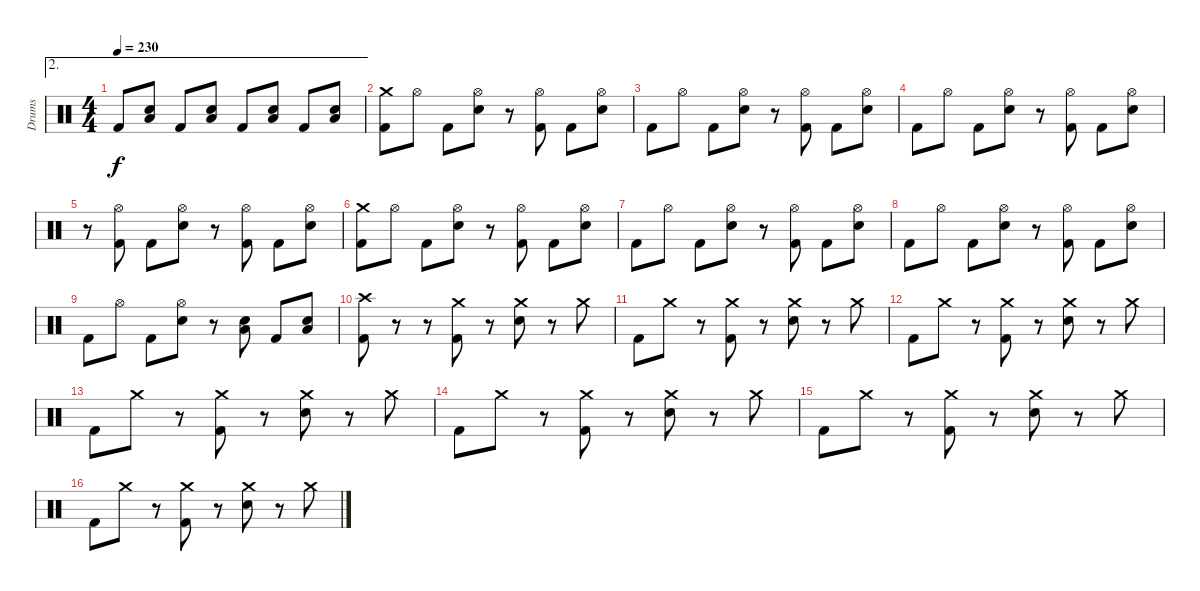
\track ("Drums" "Drums") {instrument percussion}
\staff {score}
\articulation defaults
\ae 2
\ts (4 4)
\tempo 230
\clef neutral
\ks c "Kick (hit) 2".8{dy f}
("Electric Snare (hit)" "Low Tom (hit)").8 "Kick (hit) 2".8 ("Electric Snare (hit)" "Low Tom (hit)").8 "Kick (hit) 2".8 ("Electric Snare (hit)" "Low Tom (hit)").8 "Kick (hit) 2".8 ("Electric Snare (hit)" "Low Tom (hit)").8 |
("Kick (hit) 2" "Crash medium (hit)").8 "Hi-Hat (open)".8 "Kick (hit) 2".8 ("Electric Snare (hit)" "Hi-Hat (open)").8 r.8 ("Kick (hit) 2" "Hi-Hat (open)").8 "Kick (hit) 2".8 ("Electric Snare (hit)" "Hi-Hat (open)").8 |
"Kick (hit) 2".8 "Hi-Hat (open)".8 "Kick (hit) 2".8 ("Electric Snare (hit)" "Hi-Hat (open)").8 r.8 ("Kick (hit) 2" "Hi-Hat (open)").8 "Kick (hit) 2".8 ("Electric Snare (hit)" "Hi-Hat (open)").8 |
"Kick (hit) 2".8 "Hi-Hat (open)".8 "Kick (hit) 2".8 ("Electric Snare (hit)" "Hi-Hat (open)").8 r.8 ("Kick (hit) 2" "Hi-Hat (open)").8 "Kick (hit) 2".8 ("Electric Snare (hit)" "Hi-Hat (open)").8 |
r.8 ("Kick (hit) 2" "Hi-Hat (open)").8 "Kick (hit) 2".8 ("Electric Snare (hit)" "Hi-Hat (open)").8 r.8 ("Kick (hit) 2" "Hi-Hat (open)").8 "Kick (hit) 2".8 ("Electric Snare (hit)" "Hi-Hat (open)").8 |
("Kick (hit) 2" "Crash medium (hit)").8 "Hi-Hat (open)".8 "Kick (hit) 2".8 ("Electric Snare (hit)" "Hi-Hat (open)").8 r.8 ("Kick (hit) 2" "Hi-Hat (open)").8 "Kick (hit) 2".8 ("Electric Snare (hit)" "Hi-Hat (open)").8 |
"Kick (hit) 2".8 "Hi-Hat (open)".8 "Kick (hit) 2".8 ("Electric Snare (hit)" "Hi-Hat (open)").8 r.8 ("Kick (hit) 2" "Hi-Hat (open)").8 "Kick (hit) 2".8 ("Electric Snare (hit)" "Hi-Hat (open)").8 |
"Kick (hit) 2".8 "Hi-Hat (open)".8 "Kick (hit) 2".8 ("Electric Snare (hit)" "Hi-Hat (open)").8 r.8 ("Kick (hit) 2" "Hi-Hat (open)").8 "Kick (hit) 2".8 ("Electric Snare (hit)" "Hi-Hat (open)").8 |
"Kick (hit) 2".8 "Hi-Hat (open)".8 "Kick (hit) 2".8 ("Electric Snare (hit)" "Hi-Hat (open)").8 r.8 ("Electric Snare (hit)" "Low Tom (hit)").8 "Kick (hit) 2".8 ("Electric Snare (hit)" "Low Tom (hit)").8 |
("Kick (hit) 2" "Crash high (hit)").8 r.8 r.8 ("Kick (hit) 2" "Crash medium (hit)").8 r.8 ("Electric Snare (hit)" "Crash medium (hit)").8 r.8 "Crash medium (hit)".8 |
"Kick (hit) 2".8 "Crash medium (hit)".8 r.8 ("Kick (hit) 2" "Crash medium (hit)").8 r.8 ("Electric Snare (hit)" "Crash medium (hit)").8 r.8 "Crash medium (hit)".8 |
"Kick (hit) 2".8 "Crash medium (hit)".8 r.8 ("Kick (hit) 2" "Crash medium (hit)").8 r.8 ("Electric Snare (hit)" "Crash medium (hit)").8 r.8 "Crash medium (hit)".8 |
"Kick (hit) 2".8 "Crash medium (hit)".8 r.8 ("Kick (hit) 2" "Crash medium (hit)").8 r.8 ("Electric Snare (hit)" "Crash medium (hit)").8 r.8 "Crash medium (hit)".8 |
"Kick (hit) 2".8 "Crash medium (hit)".8 r.8 ("Kick (hit) 2" "Crash medium (hit)").8 r.8 ("Electric Snare (hit)" "Crash medium (hit)").8 r.8 "Crash medium (hit)".8 |
"Kick (hit) 2".8 "Crash medium (hit)".8 r.8 ("Kick (hit) 2" "Crash medium (hit)").8 r.8 ("Electric Snare (hit)" "Crash medium (hit)").8 r.8 "Crash medium (hit)".8 |
"Kick (hit) 2".8 "Crash medium (hit)".8 r.8 ("Kick (hit) 2" "Crash medium (hit)").8 r.8 ("Electric Snare (hit)" "Crash medium (hit)").8 r.8 "Crash medium (hit)".8
